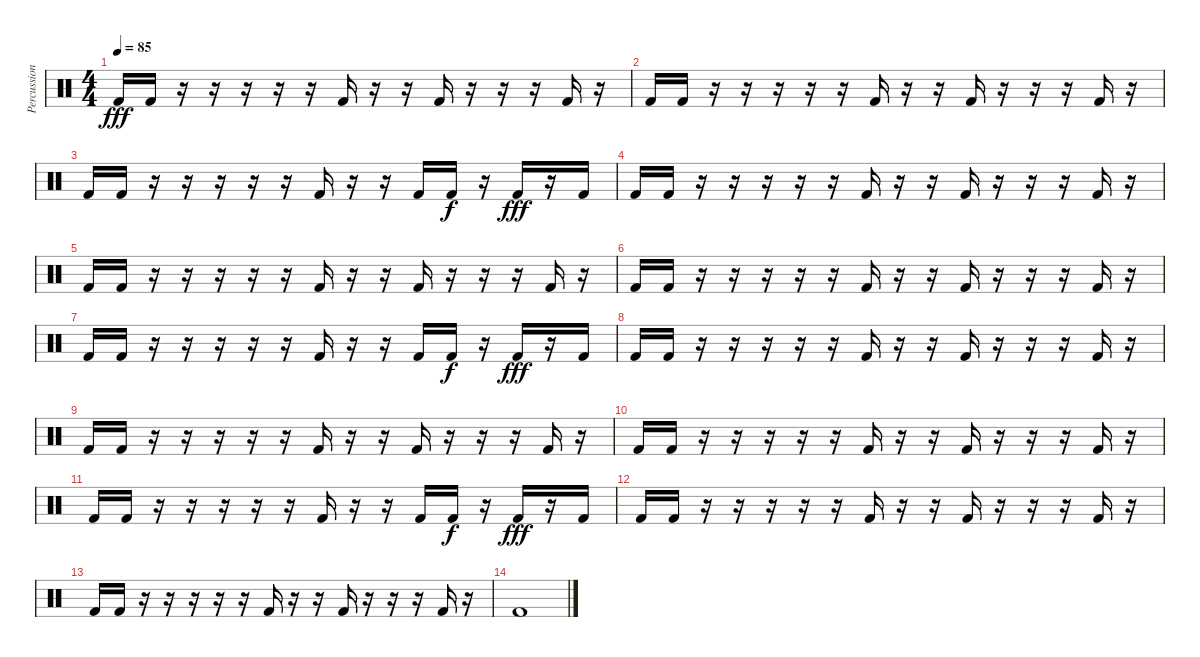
\track ("Percussion" "Percussion") {instrument percussion}
\staff {score}
\articulation defaults
\ts (4 4)
\tempo 85
\clef neutral
\ks c "Kick (hit) 2".16{dy fff} "Kick (hit) 2".16
r.16 r.16 r.16 r.16 r.16 "Kick (hit) 2".16 r.16 r.16 "Kick (hit) 2".16 r.16 r.16 r.16 "Kick (hit) 2".16 r.16 |
"Kick (hit) 2".16 "Kick (hit) 2".16 r.16 r.16 r.16 r.16 r.16 "Kick (hit) 2".16 r.16 r.16 "Kick (hit) 2".16 r.16 r.16 r.16 "Kick (hit) 2".16 r.16 |
"Kick (hit) 2".16 "Kick (hit) 2".16 r.16 r.16 r.16 r.16 r.16 "Kick (hit) 2".16 r.16 r.16 "Kick (hit) 2".16 "Kick (hit) 2".16{dy f} r.16 "Kick (hit) 2".16{dy fff} r.16 "Kick (hit) 2".16 |
"Kick (hit) 2".16 "Kick (hit) 2".16 r.16 r.16 r.16 r.16 r.16 "Kick (hit) 2".16 r.16 r.16 "Kick (hit) 2".16 r.16 r.16 r.16 "Kick (hit) 2".16 r.16 |
"Kick (hit) 2".16 "Kick (hit) 2".16 r.16 r.16 r.16 r.16 r.16 "Kick (hit) 2".16 r.16 r.16 "Kick (hit) 2".16 r.16 r.16 r.16 "Kick (hit) 2".16 r.16 |
"Kick (hit) 2".16 "Kick (hit) 2".16 r.16 r.16 r.16 r.16 r.16 "Kick (hit) 2".16 r.16 r.16 "Kick (hit) 2".16 r.16 r.16 r.16 "Kick (hit) 2".16 r.16 |
"Kick (hit) 2".16 "Kick (hit) 2".16 r.16 r.16 r.16 r.16 r.16 "Kick (hit) 2".16 r.16 r.16 "Kick (hit) 2".16 "Kick (hit) 2".16{dy f} r.16 "Kick (hit) 2".16{dy fff} r.16 "Kick (hit) 2".16 |
"Kick (hit) 2".16 "Kick (hit) 2".16 r.16 r.16 r.16 r.16 r.16 "Kick (hit) 2".16 r.16 r.16 "Kick (hit) 2".16 r.16 r.16 r.16 "Kick (hit) 2".16 r.16 |
"Kick (hit) 2".16 "Kick (hit) 2".16 r.16 r.16 r.16 r.16 r.16 "Kick (hit) 2".16 r.16 r.16 "Kick (hit) 2".16 r.16 r.16 r.16 "Kick (hit) 2".16 r.16 |
"Kick (hit) 2".16 "Kick (hit) 2".16 r.16 r.16 r.16 r.16 r.16 "Kick (hit) 2".16 r.16 r.16 "Kick (hit) 2".16 r.16 r.16 r.16 "Kick (hit) 2".16 r.16 |
"Kick (hit) 2".16 "Kick (hit) 2".16 r.16 r.16 r.16 r.16 r.16 "Kick (hit) 2".16 r.16 r.16 "Kick (hit) 2".16 "Kick (hit) 2".16{dy f} r.16 "Kick (hit) 2".16{dy fff} r.16 "Kick (hit) 2".16 |
"Kick (hit) 2".16 "Kick (hit) 2".16 r.16 r.16 r.16 r.16 r.16 "Kick (hit) 2".16 r.16 r.16 "Kick (hit) 2".16 r.16 r.16 r.16 "Kick (hit) 2".16 r.16 |
"Kick (hit) 2".16 "Kick (hit) 2".16 r.16 r.16 r.16 r.16 r.16 "Kick (hit) 2".16 r.16 r.16 "Kick (hit) 2".16 r.16 r.16 r.16 "Kick (hit) 2".16 r.16 |
"Kick (hit) 2".1
